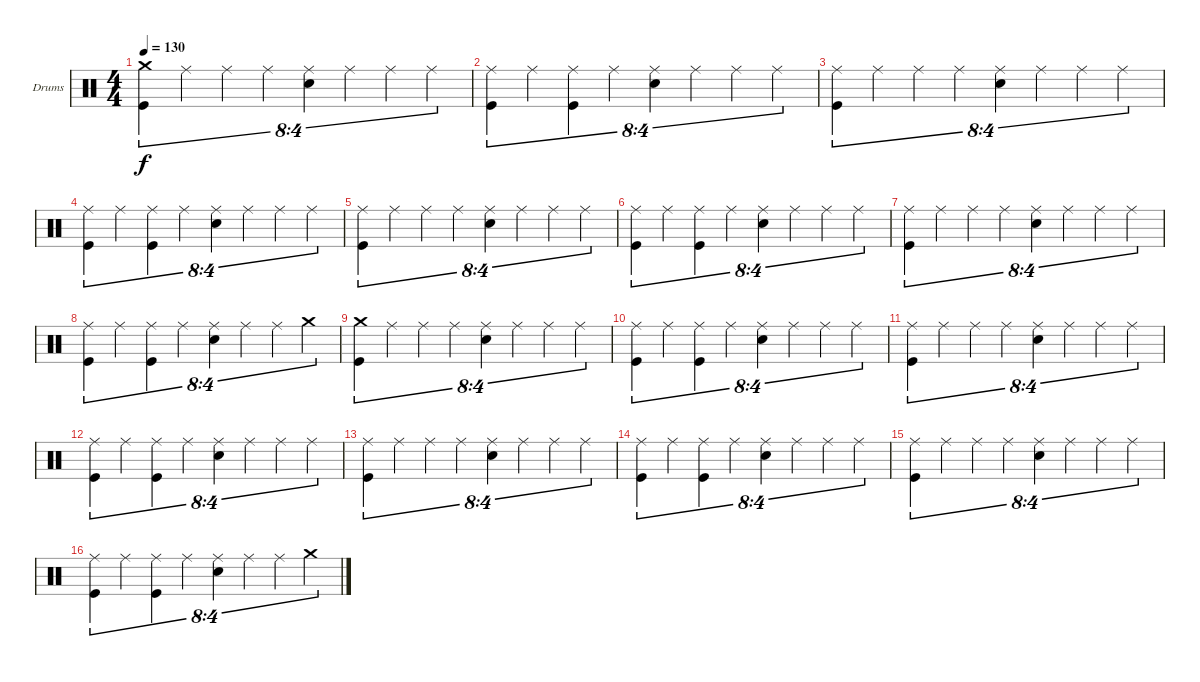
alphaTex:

\defaultSystemsLayout 4
\bracketExtendMode groupsimilarinstruments
\firstSystemTrackNameOrientation horizontal
\otherSystemsTrackNameOrientation horizontal
\track ("Drumkit" "Drums") {instrument percussion}
\staff {score}
\articulation defaults
\ts (4 4)
\tempo 130
\clef neutral
\ks c
("Kick (hit)" "Crash medium (hit)").4{tu (8 4) dy f} "Ride (middle)".4{tu (8 4)} "Ride (middle)".4{tu (8 4)} "Ride (middle)".4{tu (8 4)} ("Snare (hit) 2" "Ride (middle)").4{tu (8 4)} "Ride (middle)".4{tu (8 4)} "Ride (middle)".4{tu (8 4)} "Ride (middle)".4{tu (8 4)} |
("Ride (middle)" "Kick (hit)").4{tu (8 4)} "Ride (middle)".4{tu (8 4)} ("Ride (middle)" "Kick (hit)").4{tu (8 4)} "Ride (middle)".4{tu (8 4)} ("Ride (middle)" "Snare (hit) 2").4{tu (8 4)} "Ride (middle)".4{tu (8 4)} "Ride (middle)".4{tu (8 4)} "Ride (middle)".4{tu (8 4)} |
("Ride (middle)" "Kick (hit)").4{tu (8 4)} "Ride (middle)".4{tu (8 4)} "Ride (middle)".4{tu (8 4)} "Ride (middle)".4{tu (8 4)} ("Ride (middle)" "Snare (hit) 2").4{tu (8 4)} "Ride (middle)".4{tu (8 4)} "Ride (middle)".4{tu (8 4)} "Ride (middle)".4{tu (8 4)} |
("Ride (middle)" "Kick (hit)").4{tu (8 4)} "Ride (middle)".4{tu (8 4)} ("Ride (middle)" "Kick (hit)").4{tu (8 4)} "Ride (middle)".4{tu (8 4)} ("Ride (middle)" "Snare (hit) 2").4{tu (8 4)} "Ride (middle)".4{tu (8 4)} "Ride (middle)".4{tu (8 4)} "Ride (middle)".4{tu (8 4)} |
("Ride (middle)" "Kick (hit)").4{tu (8 4)} "Ride (middle)".4{tu (8 4)} "Ride (middle)".4{tu (8 4)} "Ride (middle)".4{tu (8 4)} ("Ride (middle)" "Snare (hit) 2").4{tu (8 4)} "Ride (middle)".4{tu (8 4)} "Ride (middle)".4{tu (8 4)} "Ride (middle)".4{tu (8 4)} |
("Ride (middle)" "Kick (hit)").4{tu (8 4)} "Ride (middle)".4{tu (8 4)} ("Ride (middle)" "Kick (hit)").4{tu (8 4)} "Ride (middle)".4{tu (8 4)} ("Ride (middle)" "Snare (hit) 2").4{tu (8 4)} "Ride (middle)".4{tu (8 4)} "Ride (middle)".4{tu (8 4)} "Ride (middle)".4{tu (8 4)} |
("Ride (middle)" "Kick (hit)").4{tu (8 4)} "Ride (middle)".4{tu (8 4)} "Ride (middle)".4{tu (8 4)} "Ride (middle)".4{tu (8 4)} ("Ride (middle)" "Snare (hit) 2").4{tu (8 4)} "Ride (middle)".4{tu (8 4)} "Ride (middle)".4{tu (8 4)} "Ride (middle)".4{tu (8 4)} |
("Ride (middle)" "Kick (hit)").4{tu (8 4)} "Ride (middle)".4{tu (8 4)} ("Ride (middle)" "Kick (hit)").4{tu (8 4)} "Ride (middle)".4{tu (8 4)} ("Ride (middle)" "Snare (hit) 2").4{tu (8 4)} "Ride (middle)".4{tu (8 4)} "Ride (middle)".4{tu (8 4)} "Crash medium (hit)".4{tu (8 4)} |
("Kick (hit)" "Crash medium (hit)").4{tu (8 4)} "Ride (middle)".4{tu (8 4)} "Ride (middle)".4{tu (8 4)} "Ride (middle)".4{tu (8 4)} ("Snare (hit) 2" "Ride (middle)").4{tu (8 4)} "Ride (middle)".4{tu (8 4)} "Ride (middle)".4{tu (8 4)} "Ride (middle)".4{tu (8 4)} |
("Ride (middle)" "Kick (hit)").4{tu (8 4)} "Ride (middle)".4{tu (8 4)} ("Ride (middle)" "Kick (hit)").4{tu (8 4)} "Ride (middle)".4{tu (8 4)} ("Ride (middle)" "Snare (hit) 2").4{tu (8 4)} "Ride (middle)".4{tu (8 4)} "Ride (middle)".4{tu (8 4)} "Ride (middle)".4{tu (8 4)} |
("Ride (middle)" "Kick (hit)").4{tu (8 4)} "Ride (middle)".4{tu (8 4)} "Ride (middle)".4{tu (8 4)} "Ride (middle)".4{tu (8 4)} ("Ride (middle)" "Snare (hit) 2").4{tu (8 4)} "Ride (middle)".4{tu (8 4)} "Ride (middle)".4{tu (8 4)} "Ride (middle)".4{tu (8 4)} |
("Ride (middle)" "Kick (hit)").4{tu (8 4)} "Ride (middle)".4{tu (8 4)} ("Ride (middle)" "Kick (hit)").4{tu (8 4)} "Ride (middle)".4{tu (8 4)} ("Ride (middle)" "Snare (hit) 2").4{tu (8 4)} "Ride (middle)".4{tu (8 4)} "Ride (middle)".4{tu (8 4)} "Ride (middle)".4{tu (8 4)} |
("Ride (middle)" "Kick (hit)").4{tu (8 4)} "Ride (middle)".4{tu (8 4)} "Ride (middle)".4{tu (8 4)} "Ride (middle)".4{tu (8 4)} ("Ride (middle)" "Snare (hit) 2").4{tu (8 4)} "Ride (middle)".4{tu (8 4)} "Ride (middle)".4{tu (8 4)} "Ride (middle)".4{tu (8 4)} |
("Ride (middle)" "Kick (hit)").4{tu (8 4)} "Ride (middle)".4{tu (8 4)} ("Ride (middle)" "Kick (hit)").4{tu (8 4)} "Ride (middle)".4{tu (8 4)} ("Ride (middle)" "Snare (hit) 2").4{tu (8 4)} "Ride (middle)".4{tu (8 4)} "Ride (middle)".4{tu (8 4)} "Ride (middle)".4{tu (8 4)} |
("Ride (middle)" "Kick (hit)").4{tu (8 4)} "Ride (middle)".4{tu (8 4)} "Ride (middle)".4{tu (8 4)} "Ride (middle)".4{tu (8 4)} ("Ride (middle)" "Snare (hit) 2").4{tu (8 4)} "Ride (middle)".4{tu (8 4)} "Ride (middle)".4{tu (8 4)} "Ride (middle)".4{tu (8 4)} |
("Ride (middle)" "Kick (hit)").4{tu (8 4)} "Ride (middle)".4{tu (8 4)} ("Ride (middle)" "Kick (hit)").4{tu (8 4)} "Ride (middle)".4{tu (8 4)} ("Ride (middle)" "Snare (hit) 2").4{tu (8 4)} "Ride (middle)".4{tu (8 4)} "Ride (middle)".4{tu (8 4)} "Crash medium (hit)".4{tu (8 4)}
